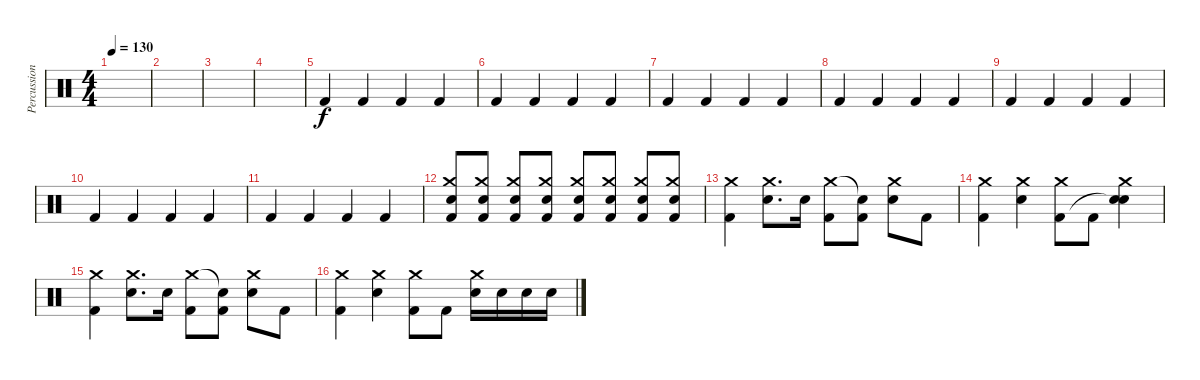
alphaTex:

\track ("Percussion" "Percussion") {instrument percussion}
\staff {score}
\articulation defaults
\ts (4 4)
\tempo 130
\clef neutral
\ks c
|
|
|
|
"Kick (hit) 2".4 "Kick (hit) 2".4 "Kick (hit) 2".4 "Kick (hit) 2".4 |
"Kick (hit) 2".4 "Kick (hit) 2".4 "Kick (hit) 2".4 "Kick (hit) 2".4 |
"Kick (hit) 2".4 "Kick (hit) 2".4 "Kick (hit) 2".4 "Kick (hit) 2".4 |
"Kick (hit) 2".4 "Kick (hit) 2".4 "Kick (hit) 2".4 "Kick (hit) 2".4 |
"Kick (hit) 2".4 "Kick (hit) 2".4 "Kick (hit) 2".4 "Kick (hit) 2".4 |
"Kick (hit) 2".4 "Kick (hit) 2".4 "Kick (hit) 2".4 "Kick (hit) 2".4 |
"Kick (hit) 2".4 "Kick (hit) 2".4 "Kick (hit) 2".4 "Kick (hit) 2".4 |
("Crash medium (hit)" "Snare (hit) 2" "Kick (hit) 2").8 ("Crash medium (hit)" "Snare (hit) 2" "Kick (hit) 2").8 ("Crash medium (hit)" "Snare (hit) 2" "Kick (hit) 2").8 ("Crash medium (hit)" "Snare (hit) 2" "Kick (hit) 2").8 ("Crash medium (hit)" "Snare (hit) 2" "Kick (hit) 2").8 ("Crash medium (hit)" "Snare (hit) 2" "Kick (hit) 2").8 ("Crash medium (hit)" "Snare (hit) 2" "Kick (hit) 2").8 ("Crash medium (hit)" "Snare (hit) 2" "Kick (hit) 2").8 |
("Crash medium (hit)" "Kick (hit) 2").4 ("Crash medium (hit)" "Snare (hit) 2").8{d} "Snare (hit) 2".16 ("Crash medium (hit)" "Kick (hit) 2").8 ("Snare (hit)"{t} "Kick (hit) 2").8 ("Crash medium (hit)" "Snare (hit) 2").8 "Kick (hit) 2".8 |
("Crash medium (hit)" "Kick (hit) 2").4 ("Crash medium (hit)" "Snare (hit) 2").4 ("Crash medium (hit)" "Kick (hit) 2").8 "Kick (hit) 2".8 ("Crash medium (hit)" "Snare (hit)"{t} "Snare (hit) 2").4 |
("Crash medium (hit)" "Kick (hit) 2").4 ("Crash medium (hit)" "Snare (hit) 2").8{d} "Snare (hit) 2".16 ("Crash medium (hit)" "Kick (hit) 2").8 ("Snare (hit)"{t} "Kick (hit) 2").8 ("Crash medium (hit)" "Snare (hit) 2").8 "Kick (hit) 2".8 |
("Crash medium (hit)" "Kick (hit) 2").4 ("Crash medium (hit)" "Snare (hit) 2").4 ("Crash medium (hit)" "Kick (hit) 2").8 "Kick (hit) 2".8 ("Crash medium (hit)" "Snare (hit) 2").16 "Snare (hit) 2".16 "Snare (hit) 2".16 "Snare (hit) 2".16
